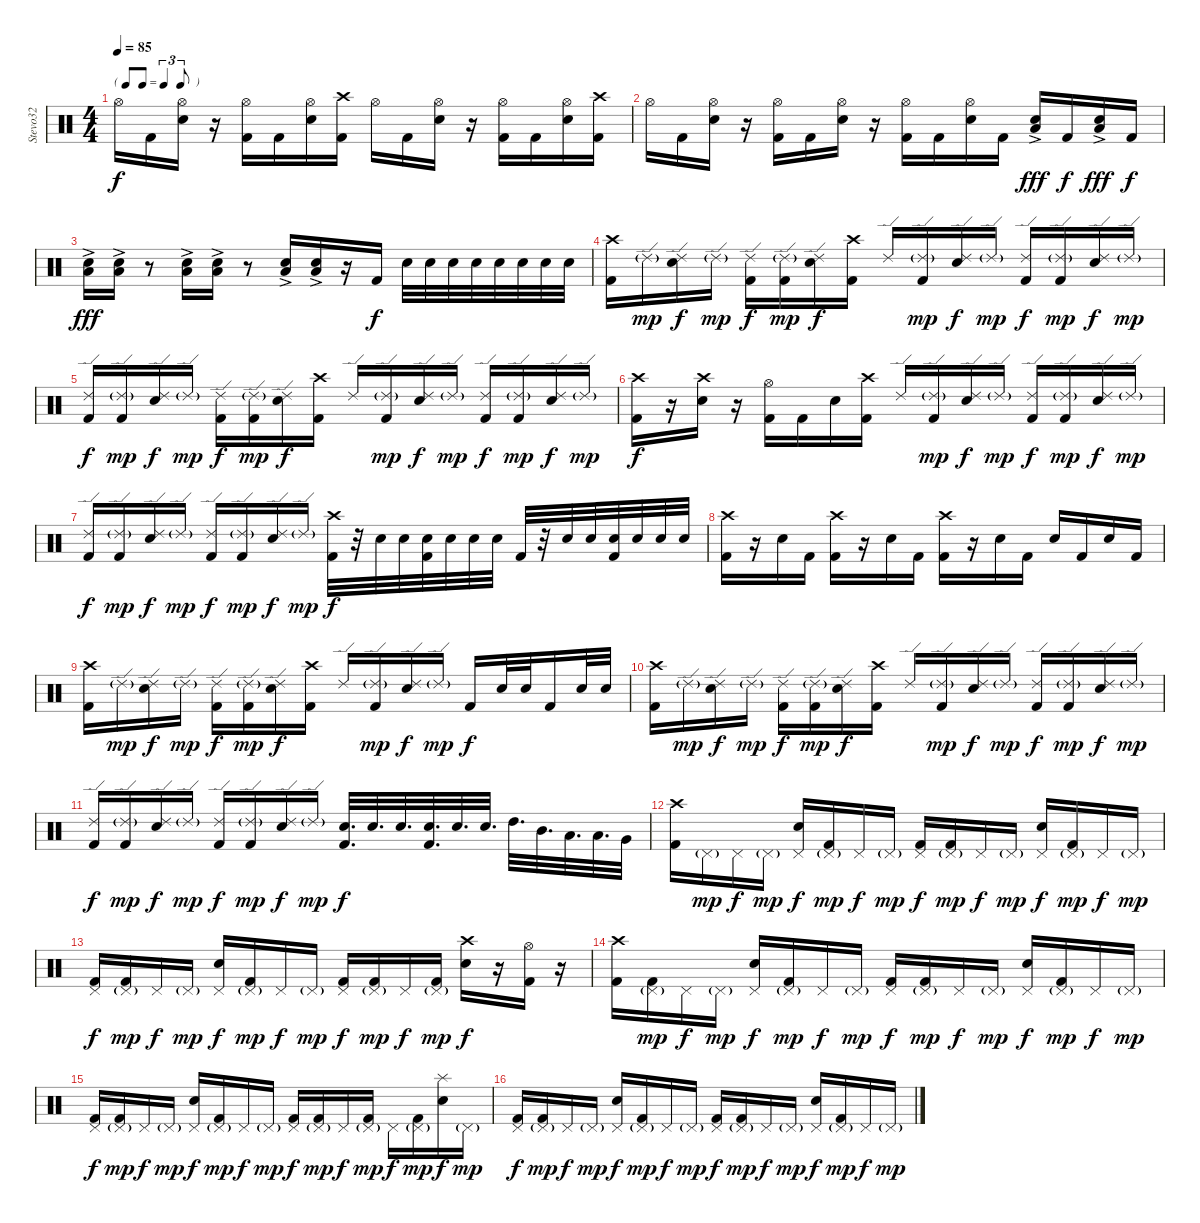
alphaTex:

\track ("Stevo32" "Stevo32") {instrument percussion}
\staff {score}
\articulation defaults
\ts (4 4)
\tf triplet8th
\tempo 85
\clef neutral
\ks c "Hi-Hat (open)".16{dy f} "Kick (hit) 2".16
("Hi-Hat (open)" "Electric Snare (hit)").16 r.16 ("Hi-Hat (open)" "Kick (hit) 2").16 "Kick (hit) 2".16 ("Hi-Hat (open)" "Electric Snare (hit)").16 ("Crash high (hit)" "Kick (hit) 2").16 "Hi-Hat (open)".16 "Kick (hit) 2".16 ("Hi-Hat (open)" "Electric Snare (hit)").16 r.16 ("Hi-Hat (open)" "Kick (hit) 2").16 "Kick (hit) 2".16 ("Hi-Hat (open)" "Electric Snare (hit)").16 ("Crash high (hit)" "Kick (hit) 2").16 |
"Hi-Hat (open)".16 "Kick (hit) 2".16 ("Hi-Hat (open)" "Electric Snare (hit)").16 r.16 ("Hi-Hat (open)" "Kick (hit) 2").16 "Kick (hit) 2".16 ("Hi-Hat (open)" "Electric Snare (hit)").16 r.16 ("Hi-Hat (open)" "Kick (hit) 2").16 "Kick (hit) 2".16 ("Hi-Hat (open)" "Electric Snare (hit)").16 "Kick (hit) 2".16 ("Low Tom (hit)"{ac} "Electric Snare (hit)"{ac}).16{dy fff} "Kick (hit) 2".16{dy f} ("Low Tom (hit)"{ac} "Electric Snare (hit)"{ac}).16{dy fff} "Kick (hit) 2".16{dy f} |
("Low Tom (hit)"{ac} "Electric Snare (hit)"{ac}).16{dy fff} ("Low Tom (hit)"{ac} "Electric Snare (hit)"{ac}).16 r.8 ("Low Tom (hit)"{ac} "Electric Snare (hit)"{ac}).16 ("Low Tom (hit)"{ac} "Electric Snare (hit)"{ac}).16 r.8 ("Low Tom (hit)"{ac} "Electric Snare (hit)"{ac}).16 ("Low Tom (hit)"{ac} "Electric Snare (hit)"{ac}).16 r.16 "Kick (hit) 2".16{dy f} "Electric Snare (hit)".32 "Electric Snare (hit)".32 "Electric Snare (hit)".32 "Electric Snare (hit)".32 "Electric Snare (hit)".32 "Electric Snare (hit)".32 "Electric Snare (hit)".32 "Electric Snare (hit)".32 |
("Crash high (hit)" "Kick (hit) 2").16 "Ride (edge) 2"{g}.16{dy mp} ("Ride (edge) 2" "Electric Snare (hit)").16{dy f} "Ride (edge) 2"{g}.16{dy mp} ("Ride (edge) 2" "Kick (hit) 2").16{dy f} ("Ride (edge) 2"{g} "Kick (hit) 2").16{dy mp} ("Ride (edge) 2" "Electric Snare (hit)").16{dy f} ("Crash high (hit)" "Kick (hit) 2").16 "Ride (edge) 2".16 ("Ride (edge) 2"{g} "Kick (hit) 2").16{dy mp} ("Ride (edge) 2" "Electric Snare (hit)").16{dy f} "Ride (edge) 2"{g}.16{dy mp} ("Ride (edge) 2" "Kick (hit) 2").16{dy f} ("Ride (edge) 2"{g} "Kick (hit) 2").16{dy mp} ("Ride (edge) 2" "Electric Snare (hit)").16{dy f} "Ride (edge) 2"{g}.16{dy mp} |
("Ride (edge) 2" "Kick (hit) 2").16{dy f} ("Ride (edge) 2"{g} "Kick (hit) 2").16{dy mp} ("Ride (edge) 2" "Electric Snare (hit)").16{dy f} "Ride (edge) 2"{g}.16{dy mp} ("Ride (edge) 2" "Kick (hit) 2").16{dy f} ("Ride (edge) 2"{g} "Kick (hit) 2").16{dy mp} ("Ride (edge) 2" "Electric Snare (hit)").16{dy f} ("Crash high (hit)" "Kick (hit) 2").16 "Ride (edge) 2".16 ("Ride (edge) 2"{g} "Kick (hit) 2").16{dy mp} ("Ride (edge) 2" "Electric Snare (hit)").16{dy f} "Ride (edge) 2"{g}.16{dy mp} ("Ride (edge) 2" "Kick (hit) 2").16{dy f} ("Ride (edge) 2"{g} "Kick (hit) 2").16{dy mp} ("Ride (edge) 2" "Electric Snare (hit)").16{dy f} "Ride (edge) 2"{g}.16{dy mp} |
("Crash high (hit)" "Kick (hit) 2").16{dy f} r.16 ("Crash high (hit)" "Electric Snare (hit)").16 r.16 ("Hi-Hat (open)" "Kick (hit) 2").16 "Kick (hit) 2".16 "Electric Snare (hit)".16 ("Crash high (hit)" "Kick (hit) 2").16 "Ride (edge) 2".16 ("Ride (edge) 2"{g} "Kick (hit) 2").16{dy mp} ("Ride (edge) 2" "Electric Snare (hit)").16{dy f} "Ride (edge) 2"{g}.16{dy mp} ("Ride (edge) 2" "Kick (hit) 2").16{dy f} ("Ride (edge) 2"{g} "Kick (hit) 2").16{dy mp} ("Ride (edge) 2" "Electric Snare (hit)").16{dy f} "Ride (edge) 2"{g}.16{dy mp} |
("Ride (edge) 2" "Kick (hit) 2").16{dy f} ("Ride (edge) 2"{g} "Kick (hit) 2").16{dy mp} ("Ride (edge) 2" "Electric Snare (hit)").16{dy f} "Ride (edge) 2"{g}.16{dy mp} ("Ride (edge) 2" "Kick (hit) 2").16{dy f} ("Ride (edge) 2"{g} "Kick (hit) 2").16{dy mp} ("Ride (edge) 2" "Electric Snare (hit)").16{dy f} "Ride (edge) 2"{g}.16{dy mp} ("Crash high (hit)" "Kick (hit) 2").32{dy f} r.32 "Electric Snare (hit)".32 "Electric Snare (hit)".32 ("Electric Snare (hit)" "Kick (hit) 2").32 "Electric Snare (hit)".32 "Electric Snare (hit)".32 "Electric Snare (hit)".32 "Kick (hit) 2".32 r.32 "Electric Snare (hit)".32 "Electric Snare (hit)".32 ("Electric Snare (hit)" "Kick (hit) 2").32 "Electric Snare (hit)".32 "Electric Snare (hit)".32 "Electric Snare (hit)".32 |
("Crash high (hit)" "Kick (hit) 2").16 r.16 "Electric Snare (hit)".16 "Kick (hit) 2".16 ("Crash high (hit)" "Kick (hit) 2").16 r.16 "Electric Snare (hit)".16 "Kick (hit) 2".16 ("Crash high (hit)" "Kick (hit) 2").16 r.16 "Electric Snare (hit)".16 "Kick (hit) 2".16 "Electric Snare (hit)".16 "Kick (hit) 2".16 "Electric Snare (hit)".16 "Kick (hit) 2".16 |
("Crash high (hit)" "Kick (hit) 2").16 "Ride (edge) 2"{g}.16{dy mp} ("Ride (edge) 2" "Electric Snare (hit)").16{dy f} "Ride (edge) 2"{g}.16{dy mp} ("Ride (edge) 2" "Kick (hit) 2").16{dy f} ("Ride (edge) 2"{g} "Kick (hit) 2").16{dy mp} ("Ride (edge) 2" "Electric Snare (hit)").16{dy f} ("Crash high (hit)" "Kick (hit) 2").16 "Ride (edge) 2".16 ("Ride (edge) 2"{g} "Kick (hit) 2").16{dy mp} ("Ride (edge) 2" "Electric Snare (hit)").16{dy f} "Ride (edge) 2"{g}.16{dy mp} "Kick (hit) 2".16{dy f} "Electric Snare (hit)".32 "Electric Snare (hit)".32 "Kick (hit) 2".16 "Electric Snare (hit)".32 "Electric Snare (hit)".32 |
("Crash high (hit)" "Kick (hit) 2").16 "Ride (edge) 2"{g}.16{dy mp} ("Ride (edge) 2" "Electric Snare (hit)").16{dy f} "Ride (edge) 2"{g}.16{dy mp} ("Ride (edge) 2" "Kick (hit) 2").16{dy f} ("Ride (edge) 2"{g} "Kick (hit) 2").16{dy mp} ("Ride (edge) 2" "Electric Snare (hit)").16{dy f} ("Crash high (hit)" "Kick (hit) 2").16 "Ride (edge) 2".16 ("Ride (edge) 2"{g} "Kick (hit) 2").16{dy mp} ("Ride (edge) 2" "Electric Snare (hit)").16{dy f} "Ride (edge) 2"{g}.16{dy mp} ("Ride (edge) 2" "Kick (hit) 2").16{dy f} ("Ride (edge) 2"{g} "Kick (hit) 2").16{dy mp} ("Ride (edge) 2" "Electric Snare (hit)").16{dy f} "Ride (edge) 2"{g}.16{dy mp} |
("Ride (edge) 2" "Kick (hit) 2").16{dy f} ("Ride (edge) 2"{g} "Kick (hit) 2").16{dy mp} ("Ride (edge) 2" "Electric Snare (hit)").16{dy f} "Ride (edge) 2"{g}.16{dy mp} ("Ride (edge) 2" "Kick (hit) 2").16{dy f} ("Ride (edge) 2"{g} "Kick (hit) 2").16{dy mp} ("Ride (edge) 2" "Electric Snare (hit)").16{dy f} "Ride (edge) 2"{g}.16{dy mp} ("Electric Snare (hit)" "Kick (hit) 2").32{d dy f} "Electric Snare (hit)".32{d} "Electric Snare (hit)".32{d} ("Electric Snare (hit)" "Kick (hit) 2").32{d} "Electric Snare (hit)".32{d} "Electric Snare (hit)".32{d} "High Tom (hit)".32{d} "Mid Tom (hit)".32{d} "Low Tom (hit)".32{d} "Low Tom (hit)".32{d} "Very Low Tom (hit)".32 |
("Crash high (hit)" "Kick (hit) 2").16 "Pedal Hi-Hat (hit)"{g}.16{dy mp} "Pedal Hi-Hat (hit)".16{dy f} "Pedal Hi-Hat (hit)"{g}.16{dy mp} ("Pedal Hi-Hat (hit)" "Electric Snare (hit)").16{dy f} ("Pedal Hi-Hat (hit)"{g} "Kick (hit) 2").16{dy mp} "Pedal Hi-Hat (hit)".16{dy f} "Pedal Hi-Hat (hit)"{g}.16{dy mp} ("Pedal Hi-Hat (hit)" "Kick (hit) 2").16{dy f} ("Pedal Hi-Hat (hit)"{g} "Kick (hit) 2").16{dy mp} "Pedal Hi-Hat (hit)".16{dy f} "Pedal Hi-Hat (hit)"{g}.16{dy mp} ("Pedal Hi-Hat (hit)" "Electric Snare (hit)").16{dy f} ("Pedal Hi-Hat (hit)"{g} "Kick (hit) 2").16{dy mp} "Pedal Hi-Hat (hit)".16{dy f} "Pedal Hi-Hat (hit)"{g}.16{dy mp} |
("Pedal Hi-Hat (hit)" "Kick (hit) 2").16{dy f} ("Pedal Hi-Hat (hit)"{g} "Kick (hit) 2").16{dy mp} "Pedal Hi-Hat (hit)".16{dy f} "Pedal Hi-Hat (hit)"{g}.16{dy mp} ("Pedal Hi-Hat (hit)" "Electric Snare (hit)").16{dy f} ("Pedal Hi-Hat (hit)"{g} "Kick (hit) 2").16{dy mp} "Pedal Hi-Hat (hit)".16{dy f} "Pedal Hi-Hat (hit)"{g}.16{dy mp} ("Pedal Hi-Hat (hit)" "Kick (hit) 2").16{dy f} ("Pedal Hi-Hat (hit)"{g} "Kick (hit) 2").16{dy mp} "Pedal Hi-Hat (hit)".16{dy f} ("Pedal Hi-Hat (hit)"{g} "Kick (hit) 2").16{dy mp} ("Crash high (hit)" "Electric Snare (hit)").16{dy f} r.16 ("Hi-Hat (open)" "Kick (hit) 2").16 r.16 |
("Crash high (hit)" "Kick (hit) 2").16 ("Pedal Hi-Hat (hit)"{g} "Kick (hit) 2").16{dy mp} "Pedal Hi-Hat (hit)".16{dy f} "Pedal Hi-Hat (hit)"{g}.16{dy mp} ("Pedal Hi-Hat (hit)" "Electric Snare (hit)").16{dy f} ("Pedal Hi-Hat (hit)"{g} "Kick (hit) 2").16{dy mp} "Pedal Hi-Hat (hit)".16{dy f} "Pedal Hi-Hat (hit)"{g}.16{dy mp} ("Pedal Hi-Hat (hit)" "Kick (hit) 2").16{dy f} ("Pedal Hi-Hat (hit)"{g} "Kick (hit) 2").16{dy mp} "Pedal Hi-Hat (hit)".16{dy f} "Pedal Hi-Hat (hit)"{g}.16{dy mp} ("Pedal Hi-Hat (hit)" "Electric Snare (hit)").16{dy f} ("Pedal Hi-Hat (hit)"{g} "Kick (hit) 2").16{dy mp} "Pedal Hi-Hat (hit)".16{dy f} "Pedal Hi-Hat (hit)"{g}.16{dy mp} |
("Pedal Hi-Hat (hit)" "Kick (hit) 2").16{dy f} ("Pedal Hi-Hat (hit)"{g} "Kick (hit) 2").16{dy mp} "Pedal Hi-Hat (hit)".16{dy f} "Pedal Hi-Hat (hit)"{g}.16{dy mp} ("Pedal Hi-Hat (hit)" "Electric Snare (hit)").16{dy f} ("Pedal Hi-Hat (hit)"{g} "Kick (hit) 2").16{dy mp} "Pedal Hi-Hat (hit)".16{dy f} "Pedal Hi-Hat (hit)"{g}.16{dy mp} ("Pedal Hi-Hat (hit)" "Kick (hit) 2").16{dy f} ("Pedal Hi-Hat (hit)"{g} "Kick (hit) 2").16{dy mp} "Pedal Hi-Hat (hit)".16{dy f} ("Pedal Hi-Hat (hit)"{g} "Kick (hit) 2").16{dy mp} "Pedal Hi-Hat (hit)".16{dy f} ("Pedal Hi-Hat (hit)"{g} "Kick (hit) 2").16{dy mp} ("Splash (hit)" "Electric Snare (hit)").16{dy f} "Pedal Hi-Hat (hit)"{g}.16{dy mp} |
("Pedal Hi-Hat (hit)" "Kick (hit) 2").16{dy f} ("Pedal Hi-Hat (hit)"{g} "Kick (hit) 2").16{dy mp} "Pedal Hi-Hat (hit)".16{dy f} "Pedal Hi-Hat (hit)"{g}.16{dy mp} ("Pedal Hi-Hat (hit)" "Electric Snare (hit)").16{dy f} ("Pedal Hi-Hat (hit)"{g} "Kick (hit) 2").16{dy mp} "Pedal Hi-Hat (hit)".16{dy f} "Pedal Hi-Hat (hit)"{g}.16{dy mp} ("Pedal Hi-Hat (hit)" "Kick (hit) 2").16{dy f} ("Pedal Hi-Hat (hit)"{g} "Kick (hit) 2").16{dy mp} "Pedal Hi-Hat (hit)".16{dy f} "Pedal Hi-Hat (hit)"{g}.16{dy mp} ("Pedal Hi-Hat (hit)" "Electric Snare (hit)").16{dy f} ("Pedal Hi-Hat (hit)"{g} "Kick (hit) 2").16{dy mp} "Pedal Hi-Hat (hit)".16{dy f} "Pedal Hi-Hat (hit)"{g}.16{dy mp}
